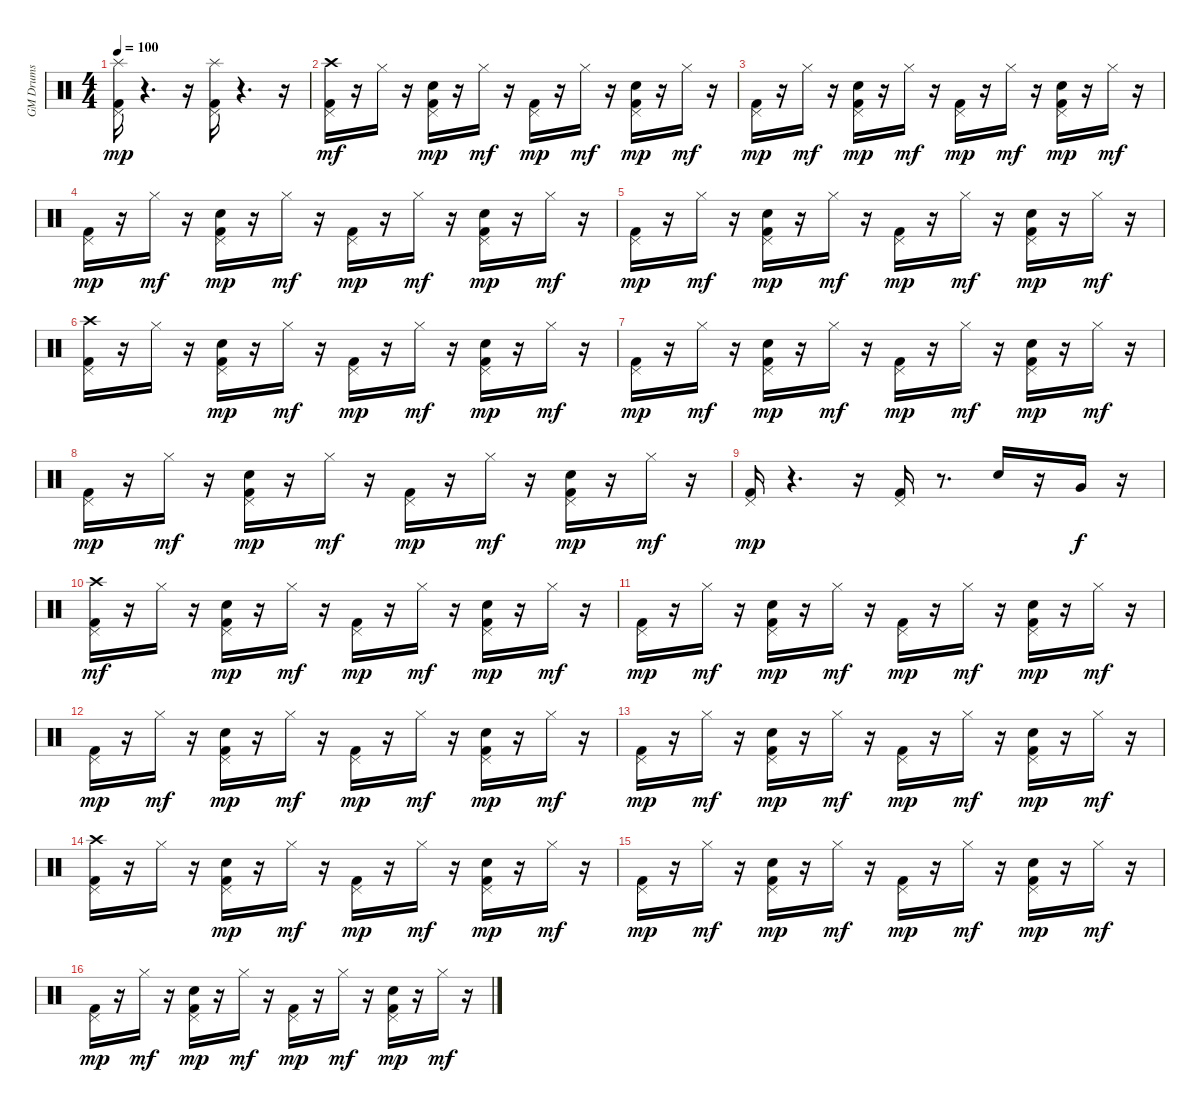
\track ("GM Drums" "GM Drums") {instrument percussion}
\staff {score}
\articulation defaults
\ts (4 4)
\tempo 100
\clef neutral
\ks c
("Kick (hit) 2" "Pedal Hi-Hat (hit)" "Splash (hit)").16{dy mp} r.4{d} r.16 ("Kick (hit) 2" "Pedal Hi-Hat (hit)" "Splash (hit)").16 r.4{d} r.16 |
("Kick (hit) 2" "Pedal Hi-Hat (hit)" "Crash high (hit)").16{dy mf} r.16 "Hi-Hat (closed)".16 r.16 ("Kick (hit) 2" "Snare (hit) 2" "Pedal Hi-Hat (hit)").16{dy mp} r.16 "Hi-Hat (closed)".16{dy mf} r.16 ("Kick (hit) 2" "Pedal Hi-Hat (hit)").16{dy mp} r.16 "Hi-Hat (closed)".16{dy mf} r.16 ("Kick (hit) 2" "Snare (hit) 2" "Pedal Hi-Hat (hit)").16{dy mp} r.16 "Hi-Hat (closed)".16{dy mf} r.16 |
("Kick (hit) 2" "Pedal Hi-Hat (hit)").16{dy mp} r.16 "Hi-Hat (closed)".16{dy mf} r.16 ("Kick (hit) 2" "Snare (hit) 2" "Pedal Hi-Hat (hit)").16{dy mp} r.16 "Hi-Hat (closed)".16{dy mf} r.16 ("Kick (hit) 2" "Pedal Hi-Hat (hit)").16{dy mp} r.16 "Hi-Hat (closed)".16{dy mf} r.16 ("Kick (hit) 2" "Snare (hit) 2" "Pedal Hi-Hat (hit)").16{dy mp} r.16 "Hi-Hat (closed)".16{dy mf} r.16 |
("Kick (hit) 2" "Pedal Hi-Hat (hit)").16{dy mp} r.16 "Hi-Hat (closed)".16{dy mf} r.16 ("Kick (hit) 2" "Snare (hit) 2" "Pedal Hi-Hat (hit)").16{dy mp} r.16 "Hi-Hat (closed)".16{dy mf} r.16 ("Kick (hit) 2" "Pedal Hi-Hat (hit)").16{dy mp} r.16 "Hi-Hat (closed)".16{dy mf} r.16 ("Kick (hit) 2" "Snare (hit) 2" "Pedal Hi-Hat (hit)").16{dy mp} r.16 "Hi-Hat (closed)".16{dy mf} r.16 |
("Kick (hit) 2" "Pedal Hi-Hat (hit)").16{dy mp} r.16 "Hi-Hat (closed)".16{dy mf} r.16 ("Kick (hit) 2" "Snare (hit) 2" "Pedal Hi-Hat (hit)").16{dy mp} r.16 "Hi-Hat (closed)".16{dy mf} r.16 ("Kick (hit) 2" "Pedal Hi-Hat (hit)").16{dy mp} r.16 "Hi-Hat (closed)".16{dy mf} r.16 ("Kick (hit) 2" "Snare (hit) 2" "Pedal Hi-Hat (hit)").16{dy mp} r.16 "Hi-Hat (closed)".16{dy mf} r.16 |
("Kick (hit) 2" "Pedal Hi-Hat (hit)" "Crash high (hit)").16 r.16 "Hi-Hat (closed)".16 r.16 ("Kick (hit) 2" "Snare (hit) 2" "Pedal Hi-Hat (hit)").16{dy mp} r.16 "Hi-Hat (closed)".16{dy mf} r.16 ("Kick (hit) 2" "Pedal Hi-Hat (hit)").16{dy mp} r.16 "Hi-Hat (closed)".16{dy mf} r.16 ("Kick (hit) 2" "Snare (hit) 2" "Pedal Hi-Hat (hit)").16{dy mp} r.16 "Hi-Hat (closed)".16{dy mf} r.16 |
("Kick (hit) 2" "Pedal Hi-Hat (hit)").16{dy mp} r.16 "Hi-Hat (closed)".16{dy mf} r.16 ("Kick (hit) 2" "Snare (hit) 2" "Pedal Hi-Hat (hit)").16{dy mp} r.16 "Hi-Hat (closed)".16{dy mf} r.16 ("Kick (hit) 2" "Pedal Hi-Hat (hit)").16{dy mp} r.16 "Hi-Hat (closed)".16{dy mf} r.16 ("Kick (hit) 2" "Snare (hit) 2" "Pedal Hi-Hat (hit)").16{dy mp} r.16 "Hi-Hat (closed)".16{dy mf} r.16 |
("Kick (hit) 2" "Pedal Hi-Hat (hit)").16{dy mp} r.16 "Hi-Hat (closed)".16{dy mf} r.16 ("Kick (hit) 2" "Snare (hit) 2" "Pedal Hi-Hat (hit)").16{dy mp} r.16 "Hi-Hat (closed)".16{dy mf} r.16 ("Kick (hit) 2" "Pedal Hi-Hat (hit)").16{dy mp} r.16 "Hi-Hat (closed)".16{dy mf} r.16 ("Kick (hit) 2" "Snare (hit) 2" "Pedal Hi-Hat (hit)").16{dy mp} r.16 "Hi-Hat (closed)".16{dy mf} r.16 |
("Kick (hit) 2" "Pedal Hi-Hat (hit)").16{dy mp} r.4{d} r.16 ("Kick (hit) 2" "Pedal Hi-Hat (hit)").16 r.8{d} "Snare (hit) 2".16 r.16 "Very Low Tom (hit)".16{dy f} r.16 |
("Kick (hit) 2" "Pedal Hi-Hat (hit)" "Crash high (hit)").16{dy mf} r.16 "Hi-Hat (closed)".16 r.16 ("Kick (hit) 2" "Snare (hit) 2" "Pedal Hi-Hat (hit)").16{dy mp} r.16 "Hi-Hat (closed)".16{dy mf} r.16 ("Kick (hit) 2" "Pedal Hi-Hat (hit)").16{dy mp} r.16 "Hi-Hat (closed)".16{dy mf} r.16 ("Kick (hit) 2" "Snare (hit) 2" "Pedal Hi-Hat (hit)").16{dy mp} r.16 "Hi-Hat (closed)".16{dy mf} r.16 |
("Kick (hit) 2" "Pedal Hi-Hat (hit)").16{dy mp} r.16 "Hi-Hat (closed)".16{dy mf} r.16 ("Kick (hit) 2" "Snare (hit) 2" "Pedal Hi-Hat (hit)").16{dy mp} r.16 "Hi-Hat (closed)".16{dy mf} r.16 ("Kick (hit) 2" "Pedal Hi-Hat (hit)").16{dy mp} r.16 "Hi-Hat (closed)".16{dy mf} r.16 ("Kick (hit) 2" "Snare (hit) 2" "Pedal Hi-Hat (hit)").16{dy mp} r.16 "Hi-Hat (closed)".16{dy mf} r.16 |
("Kick (hit) 2" "Pedal Hi-Hat (hit)").16{dy mp} r.16 "Hi-Hat (closed)".16{dy mf} r.16 ("Kick (hit) 2" "Snare (hit) 2" "Pedal Hi-Hat (hit)").16{dy mp} r.16 "Hi-Hat (closed)".16{dy mf} r.16 ("Kick (hit) 2" "Pedal Hi-Hat (hit)").16{dy mp} r.16 "Hi-Hat (closed)".16{dy mf} r.16 ("Kick (hit) 2" "Snare (hit) 2" "Pedal Hi-Hat (hit)").16{dy mp} r.16 "Hi-Hat (closed)".16{dy mf} r.16 |
("Kick (hit) 2" "Pedal Hi-Hat (hit)").16{dy mp} r.16 "Hi-Hat (closed)".16{dy mf} r.16 ("Kick (hit) 2" "Snare (hit) 2" "Pedal Hi-Hat (hit)").16{dy mp} r.16 "Hi-Hat (closed)".16{dy mf} r.16 ("Kick (hit) 2" "Pedal Hi-Hat (hit)").16{dy mp} r.16 "Hi-Hat (closed)".16{dy mf} r.16 ("Kick (hit) 2" "Snare (hit) 2" "Pedal Hi-Hat (hit)").16{dy mp} r.16 "Hi-Hat (closed)".16{dy mf} r.16 |
("Kick (hit) 2" "Pedal Hi-Hat (hit)" "Crash high (hit)").16 r.16 "Hi-Hat (closed)".16 r.16 ("Kick (hit) 2" "Snare (hit) 2" "Pedal Hi-Hat (hit)").16{dy mp} r.16 "Hi-Hat (closed)".16{dy mf} r.16 ("Kick (hit) 2" "Pedal Hi-Hat (hit)").16{dy mp} r.16 "Hi-Hat (closed)".16{dy mf} r.16 ("Kick (hit) 2" "Snare (hit) 2" "Pedal Hi-Hat (hit)").16{dy mp} r.16 "Hi-Hat (closed)".16{dy mf} r.16 |
("Kick (hit) 2" "Pedal Hi-Hat (hit)").16{dy mp} r.16 "Hi-Hat (closed)".16{dy mf} r.16 ("Kick (hit) 2" "Snare (hit) 2" "Pedal Hi-Hat (hit)").16{dy mp} r.16 "Hi-Hat (closed)".16{dy mf} r.16 ("Kick (hit) 2" "Pedal Hi-Hat (hit)").16{dy mp} r.16 "Hi-Hat (closed)".16{dy mf} r.16 ("Kick (hit) 2" "Snare (hit) 2" "Pedal Hi-Hat (hit)").16{dy mp} r.16 "Hi-Hat (closed)".16{dy mf} r.16 |
("Kick (hit) 2" "Pedal Hi-Hat (hit)").16{dy mp} r.16 "Hi-Hat (closed)".16{dy mf} r.16 ("Kick (hit) 2" "Snare (hit) 2" "Pedal Hi-Hat (hit)").16{dy mp} r.16 "Hi-Hat (closed)".16{dy mf} r.16 ("Kick (hit) 2" "Pedal Hi-Hat (hit)").16{dy mp} r.16 "Hi-Hat (closed)".16{dy mf} r.16 ("Kick (hit) 2" "Snare (hit) 2" "Pedal Hi-Hat (hit)").16{dy mp} r.16 "Hi-Hat (closed)".16{dy mf} r.16
